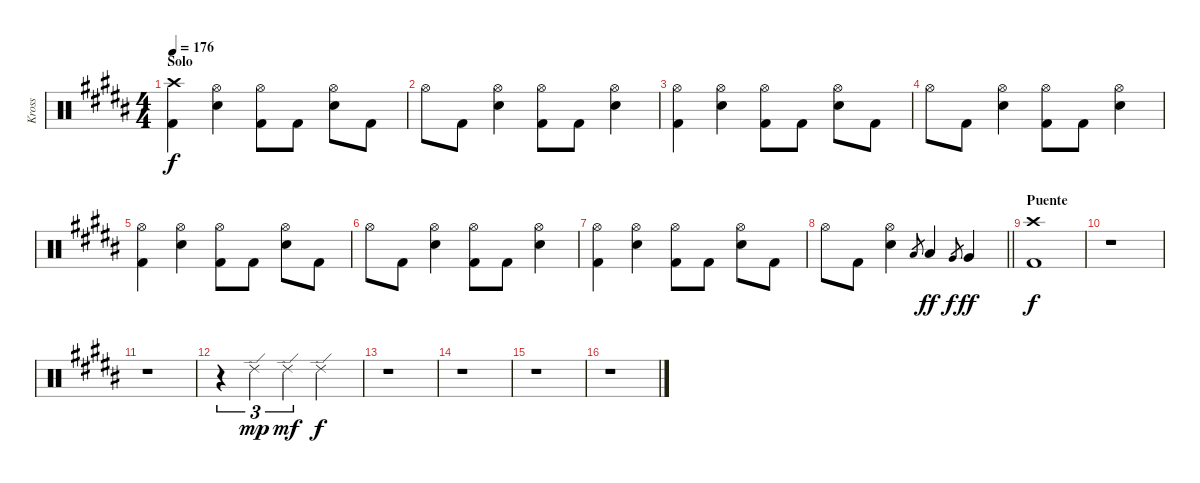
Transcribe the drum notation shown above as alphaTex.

\track ("Kross" "Kross") {instrument percussion}
\staff {score}
\articulation defaults
\ts (4 4)
\section ("" "Solo")
\tempo 176
\clef neutral
\ks b
("Crash high (hit)" "Kick (hit) 2").4{dy f} ("Hi-Hat (open)" "Electric Snare (hit)").4 ("Hi-Hat (open)" "Kick (hit) 2").8 "Kick (hit) 2".8 ("Hi-Hat (open)" "Electric Snare (hit)").8 "Kick (hit) 2".8 |
"Hi-Hat (open)".8 "Kick (hit) 2".8 ("Hi-Hat (open)" "Electric Snare (hit)").4 ("Hi-Hat (open)" "Kick (hit) 2").8 "Kick (hit) 2".8 ("Hi-Hat (open)" "Electric Snare (hit)").4 |
("Hi-Hat (open)" "Kick (hit) 2").4 ("Hi-Hat (open)" "Electric Snare (hit)").4 ("Hi-Hat (open)" "Kick (hit) 2").8 "Kick (hit) 2".8 ("Hi-Hat (open)" "Electric Snare (hit)").8 "Kick (hit) 2".8 |
"Hi-Hat (open)".8 "Kick (hit) 2".8 ("Hi-Hat (open)" "Electric Snare (hit)").4 ("Hi-Hat (open)" "Kick (hit) 2").8 "Kick (hit) 2".8 ("Hi-Hat (open)" "Electric Snare (hit)").4 |
("Hi-Hat (open)" "Kick (hit) 2").4 ("Hi-Hat (open)" "Electric Snare (hit)").4 ("Hi-Hat (open)" "Kick (hit) 2").8 "Kick (hit) 2".8 ("Hi-Hat (open)" "Electric Snare (hit)").8 "Kick (hit) 2".8 |
"Hi-Hat (open)".8 "Kick (hit) 2".8 ("Hi-Hat (open)" "Electric Snare (hit)").4 ("Hi-Hat (open)" "Kick (hit) 2").8 "Kick (hit) 2".8 ("Hi-Hat (open)" "Electric Snare (hit)").4 |
("Hi-Hat (open)" "Kick (hit) 2").4 ("Hi-Hat (open)" "Electric Snare (hit)").4 ("Hi-Hat (open)" "Kick (hit) 2").8 "Kick (hit) 2".8 ("Hi-Hat (open)" "Electric Snare (hit)").8 "Kick (hit) 2".8 |
\barLineRight lightlight "Hi-Hat (open)".8 "Kick (hit) 2".8
("Hi-Hat (open)" "Electric Snare (hit)").4 "Low Tom (hit)".8{gr} "Low Tom (hit)".4{dy ff} "Very Low Tom (hit)".8{gr dy f} "Very Low Tom (hit)".4{dy ff} |
\section ("" "Puente")
("Crash high (hit)" "Kick (hit) 2").1{dy f} |
r.1 |
r.1 |
r.4{tu (3 2)} "Ride (edge) 2".4{tu (3 2) dy mp} "Ride (edge) 2".4{tu (3 2) dy mf} "Ride (edge) 2".2{dy f} |
r.1 |
r.1 |
r.1 |
r.1
